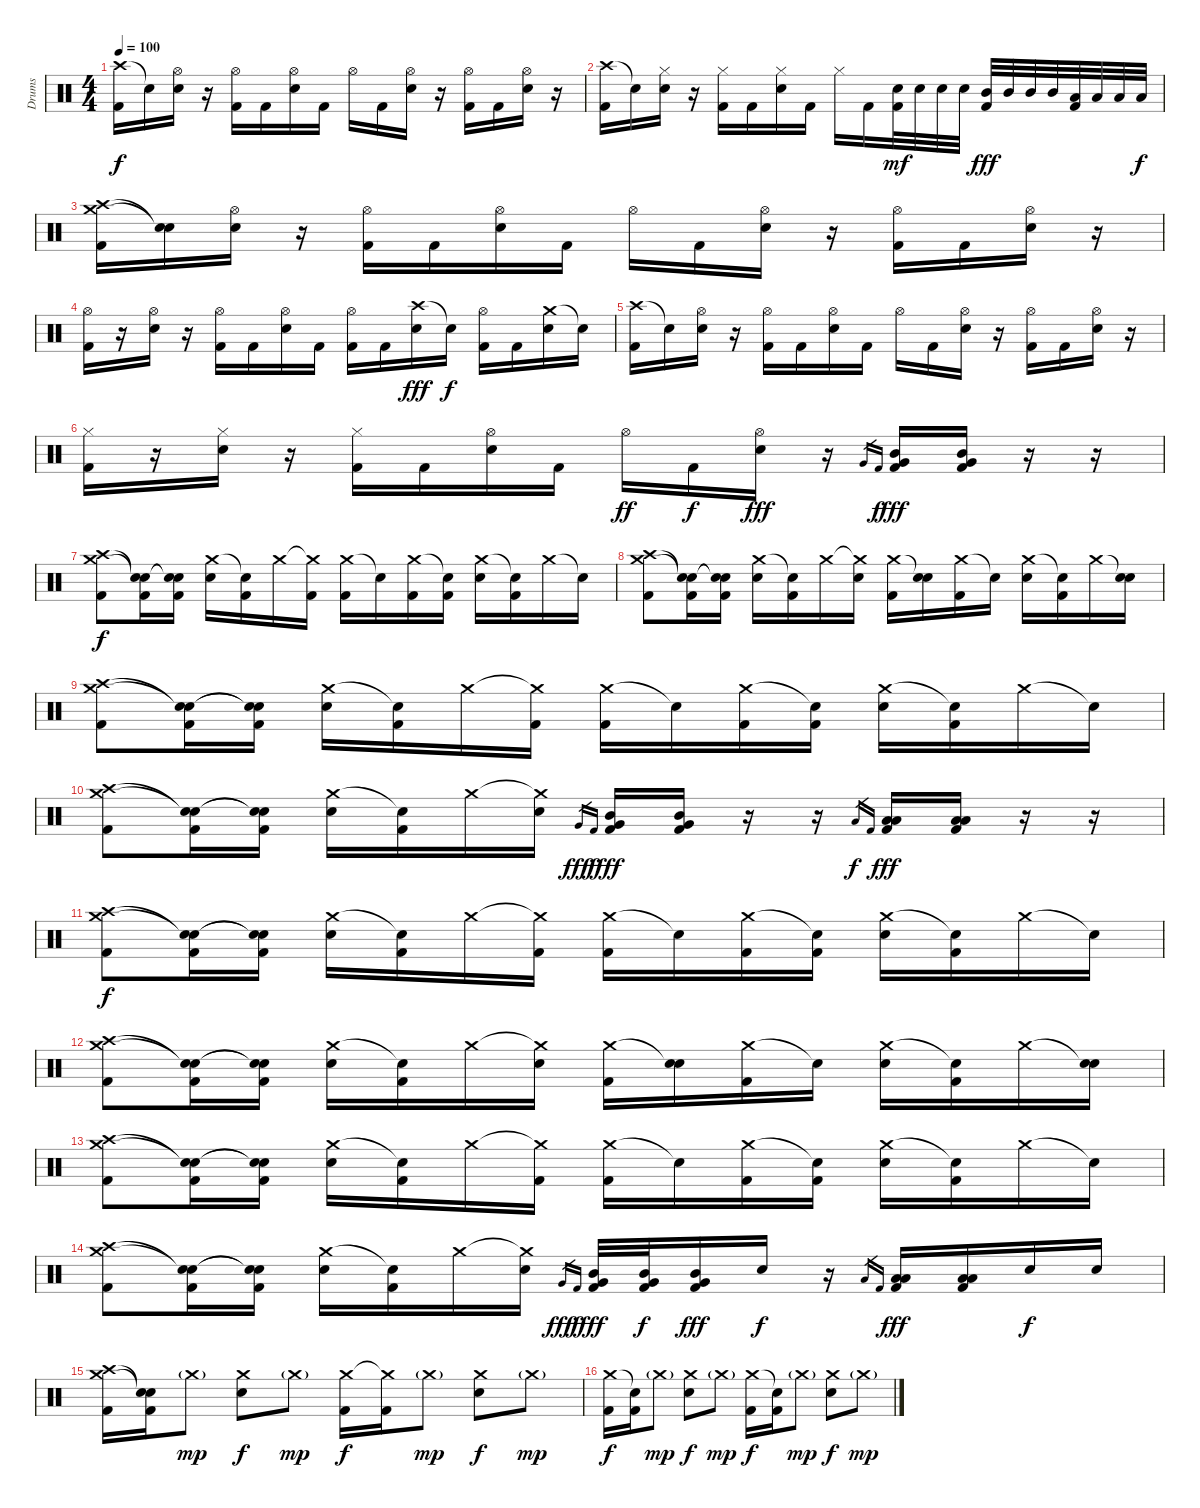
\track ("Drums" "Drums") {instrument percussion}
\staff {score}
\articulation defaults
\ts (4 4)
\tempo 100
\clef neutral
\ks c
("Crash high (hit)" "Kick (hit) 2").16{dy f} "Snare (hit)"{t}.16 ("Hi-Hat (open)" "Electric Snare (hit)").16 r.16 ("Hi-Hat (open)" "Kick (hit) 2").16 "Kick (hit) 2".16 ("Hi-Hat (open)" "Electric Snare (hit)").16 "Kick (hit) 2".16 "Hi-Hat (open)".16 "Kick (hit) 2".16 ("Hi-Hat (open)" "Electric Snare (hit)").16 r.16 ("Hi-Hat (open)" "Kick (hit) 2").16 "Kick (hit) 2".16 ("Hi-Hat (open)" "Electric Snare (hit)").16 r.16 |
("Crash high (hit)" "Kick (hit) 2").16 "Snare (hit)"{t}.16 ("Hi-Hat (closed)" "Electric Snare (hit)").16 r.16 ("Hi-Hat (closed)" "Kick (hit) 2").16 "Kick (hit) 2".16 ("Hi-Hat (closed)" "Electric Snare (hit)").16 "Kick (hit) 2".16 "Hi-Hat (closed)".16 "Kick (hit) 2".16 ("Kick (hit) 2" "Electric Snare (hit)").32{dy mf} "Electric Snare (hit)".32 "Electric Snare (hit)".32 "Electric Snare (hit)".32 ("Mid Tom (hit)" "Kick (hit) 2").32{dy fff} "Mid Tom (hit)".32 "Mid Tom (hit)".32 "Mid Tom (hit)".32 ("Low Tom (hit)" "Kick (hit) 2").32 "Low Tom (hit)".32 "Low Tom (hit)".32 "Low Tom (hit)".32{dy f} |
("Crash high (hit)" "Crash medium (hit)" "Kick (hit) 2").16 ("Snare (hit)"{t} "Snare (hit)"{t}).16 ("Hi-Hat (open)" "Electric Snare (hit)").16 r.16 ("Hi-Hat (open)" "Kick (hit) 2").16 "Kick (hit) 2".16 ("Hi-Hat (open)" "Electric Snare (hit)").16 "Kick (hit) 2".16 "Hi-Hat (open)".16 "Kick (hit) 2".16 ("Hi-Hat (open)" "Electric Snare (hit)").16 r.16 ("Hi-Hat (open)" "Kick (hit) 2").16 "Kick (hit) 2".16 ("Hi-Hat (open)" "Electric Snare (hit)").16 r.16 |
("Hi-Hat (open)" "Kick (hit) 2").16 r.16 ("Hi-Hat (open)" "Electric Snare (hit)").16 r.16 ("Hi-Hat (open)" "Kick (hit) 2").16 "Kick (hit) 2".16 ("Hi-Hat (open)" "Electric Snare (hit)").16 "Kick (hit) 2".16 ("Hi-Hat (open)" "Kick (hit) 2").16 "Kick (hit) 2".16 ("Crash high (hit)" "Electric Snare (hit)").16{dy fff} "Snare (hit)"{t}.16{dy f} ("Hi-Hat (open)" "Kick (hit) 2").16 "Kick (hit) 2".16 ("Crash medium (hit)" "Electric Snare (hit)").16 "Snare (hit)"{t}.16 |
("Crash high (hit)" "Kick (hit) 2").16 "Snare (hit)"{t}.16 ("Hi-Hat (open)" "Electric Snare (hit)").16 r.16 ("Hi-Hat (open)" "Kick (hit) 2").16 "Kick (hit) 2".16 ("Hi-Hat (open)" "Electric Snare (hit)").16 "Kick (hit) 2".16 "Hi-Hat (open)".16 "Kick (hit) 2".16 ("Hi-Hat (open)" "Electric Snare (hit)").16 r.16 ("Hi-Hat (open)" "Kick (hit) 2").16 "Kick (hit) 2".16 ("Hi-Hat (open)" "Electric Snare (hit)").16 r.16 |
("Hi-Hat (closed)" "Kick (hit) 2").16 r.16 ("Hi-Hat (closed)" "Electric Snare (hit)").16 r.16 ("Hi-Hat (closed)" "Kick (hit) 2").16 "Kick (hit) 2".16 ("Hi-Hat (open)" "Electric Snare (hit)").16 "Kick (hit) 2".16 "Hi-Hat (open)".16{dy ff} "Kick (hit) 2".16{dy f} ("Hi-Hat (open)" "Electric Snare (hit)").16{dy fff} r.16 "Very Low Tom (hit)".16{gr} "Kick (hit) 2".16{gr dy f} ("Mid Tom (hit)" "Very Low Tom (hit)" "Kick (hit) 2").16{dy fff} ("Mid Tom (hit)" "Very Low Tom (hit)" "Kick (hit) 2").16 r.16 r.16 |
("Crash high (hit)" "Crash medium (hit)" "Kick (hit) 2").8{dy f} ("Snare (hit)"{t} "Snare (hit)"{t} "Kick (hit) 2").16 ("Snare (hit)"{t} "Snare (hit)"{t} "Kick (hit) 2").16 ("Crash medium (hit)" "Electric Snare (hit)").16 ("Snare (hit)"{t} "Kick (hit) 2").16 "Crash medium (hit)".16 ("Crash medium (hit)"{t} "Kick (hit) 2").16 ("Crash medium (hit)" "Kick (hit) 2").16 "Snare (hit)"{t}.16 ("Crash medium (hit)" "Kick (hit) 2").16 ("Snare (hit)"{t} "Kick (hit) 2").16 ("Crash medium (hit)" "Electric Snare (hit)").16 ("Snare (hit)"{t} "Kick (hit) 2").16 "Crash medium (hit)".16 "Snare (hit)"{t}.16 |
("Crash high (hit)" "Crash medium (hit)" "Kick (hit) 2").8 ("Snare (hit)"{t} "Snare (hit)"{t} "Kick (hit) 2").16 ("Snare (hit)"{t} "Snare (hit)"{t} "Kick (hit) 2").16 ("Crash medium (hit)" "Electric Snare (hit)").16 ("Snare (hit)"{t} "Kick (hit) 2").16 "Crash medium (hit)".16 ("Crash medium (hit)"{t} "Electric Snare (hit)").16 ("Crash medium (hit)" "Kick (hit) 2").16 ("Snare (hit)"{t} "Electric Snare (hit)").16 ("Crash medium (hit)" "Kick (hit) 2").16 "Snare (hit)"{t}.16 ("Crash medium (hit)" "Electric Snare (hit)").16 ("Snare (hit)"{t} "Kick (hit) 2").16 "Crash medium (hit)".16 ("Snare (hit)"{t} "Electric Snare (hit)").16 |
("Crash high (hit)" "Crash medium (hit)" "Kick (hit) 2").8 ("Snare (hit)"{t} "Snare (hit)"{t} "Kick (hit) 2").16 ("Snare (hit)"{t} "Snare (hit)"{t} "Kick (hit) 2").16 ("Crash medium (hit)" "Electric Snare (hit)").16 ("Snare (hit)"{t} "Kick (hit) 2").16 "Crash medium (hit)".16 ("Crash medium (hit)"{t} "Kick (hit) 2").16 ("Crash medium (hit)" "Kick (hit) 2").16 "Snare (hit)"{t}.16 ("Crash medium (hit)" "Kick (hit) 2").16 ("Snare (hit)"{t} "Kick (hit) 2").16 ("Crash medium (hit)" "Electric Snare (hit)").16 ("Snare (hit)"{t} "Kick (hit) 2").16 "Crash medium (hit)".16 "Snare (hit)"{t}.16 |
("Crash high (hit)" "Crash medium (hit)" "Kick (hit) 2").8 ("Snare (hit)"{t} "Snare (hit)"{t} "Kick (hit) 2").16 ("Snare (hit)"{t} "Snare (hit)"{t} "Kick (hit) 2").16 ("Crash medium (hit)" "Electric Snare (hit)").16 ("Snare (hit)"{t} "Kick (hit) 2").16 "Crash medium (hit)".16 ("Crash medium (hit)"{t} "Electric Snare (hit)").16 "Very Low Tom (hit)".16{gr dy fff} "Kick (hit) 2".16{gr dy f} ("Mid Tom (hit)" "Very Low Tom (hit)" "Kick (hit) 2").16{dy fff} ("Mid Tom (hit)" "Very Low Tom (hit)" "Kick (hit) 2").16 r.16 r.16 "Low Floor Tom (hit)".16{gr dy f} "Kick (hit) 2".16{gr} ("Low Tom (hit)" "Low Floor Tom (hit)" "Kick (hit) 2").16{dy fff} ("Low Tom (hit)" "Low Floor Tom (hit)" "Kick (hit) 2").16 r.16 r.16 |
("Crash high (hit)" "Crash medium (hit)" "Kick (hit) 2").8{dy f} ("Snare (hit)"{t} "Snare (hit)"{t} "Kick (hit) 2").16 ("Snare (hit)"{t} "Snare (hit)"{t} "Kick (hit) 2").16 ("Crash medium (hit)" "Electric Snare (hit)").16 ("Snare (hit)"{t} "Kick (hit) 2").16 "Crash medium (hit)".16 ("Crash medium (hit)"{t} "Kick (hit) 2").16 ("Crash medium (hit)" "Kick (hit) 2").16 "Snare (hit)"{t}.16 ("Crash medium (hit)" "Kick (hit) 2").16 ("Snare (hit)"{t} "Kick (hit) 2").16 ("Crash medium (hit)" "Electric Snare (hit)").16 ("Snare (hit)"{t} "Kick (hit) 2").16 "Crash medium (hit)".16 "Snare (hit)"{t}.16 |
("Crash high (hit)" "Crash medium (hit)" "Kick (hit) 2").8 ("Snare (hit)"{t} "Snare (hit)"{t} "Kick (hit) 2").16 ("Snare (hit)"{t} "Snare (hit)"{t} "Kick (hit) 2").16 ("Crash medium (hit)" "Electric Snare (hit)").16 ("Snare (hit)"{t} "Kick (hit) 2").16 "Crash medium (hit)".16 ("Crash medium (hit)"{t} "Electric Snare (hit)").16 ("Crash medium (hit)" "Kick (hit) 2").16 ("Snare (hit)"{t} "Electric Snare (hit)").16 ("Crash medium (hit)" "Kick (hit) 2").16 "Snare (hit)"{t}.16 ("Crash medium (hit)" "Electric Snare (hit)").16 ("Snare (hit)"{t} "Kick (hit) 2").16 "Crash medium (hit)".16 ("Snare (hit)"{t} "Electric Snare (hit)").16 |
("Crash high (hit)" "Crash medium (hit)" "Kick (hit) 2").8 ("Snare (hit)"{t} "Snare (hit)"{t} "Kick (hit) 2").16 ("Snare (hit)"{t} "Snare (hit)"{t} "Kick (hit) 2").16 ("Crash medium (hit)" "Electric Snare (hit)").16 ("Snare (hit)"{t} "Kick (hit) 2").16 "Crash medium (hit)".16 ("Crash medium (hit)"{t} "Kick (hit) 2").16 ("Crash medium (hit)" "Kick (hit) 2").16 "Snare (hit)"{t}.16 ("Crash medium (hit)" "Kick (hit) 2").16 ("Snare (hit)"{t} "Kick (hit) 2").16 ("Crash medium (hit)" "Electric Snare (hit)").16 ("Snare (hit)"{t} "Kick (hit) 2").16 "Crash medium (hit)".16 "Snare (hit)"{t}.16 |
("Crash high (hit)" "Crash medium (hit)" "Kick (hit) 2").8 ("Snare (hit)"{t} "Snare (hit)"{t} "Kick (hit) 2").16 ("Snare (hit)"{t} "Snare (hit)"{t} "Kick (hit) 2").16 ("Crash medium (hit)" "Electric Snare (hit)").16 ("Snare (hit)"{t} "Kick (hit) 2").16 "Crash medium (hit)".16 ("Crash medium (hit)"{t} "Electric Snare (hit)").16 "Very Low Tom (hit)".16{gr dy fff} "Kick (hit) 2".16{gr dy f} ("Mid Tom (hit)" "Very Low Tom (hit)" "Kick (hit) 2").32{dy fff} ("Mid Tom (hit)" "Very Low Tom (hit)" "Kick (hit) 2").32{dy f} ("Mid Tom (hit)" "Very Low Tom (hit)" "Kick (hit) 2").16{dy fff} "Electric Snare (hit)".16{dy f} r.16 "Low Floor Tom (hit)".16{gr} "Kick (hit) 2".16{gr} ("Low Tom (hit)" "Low Floor Tom (hit)" "Kick (hit) 2").16{dy fff} ("Low Tom (hit)" "Low Floor Tom (hit)" "Kick (hit) 2").16 "Electric Snare (hit)".16{dy f} "Electric Snare (hit)".16 |
("Crash medium (hit)" "Crash high (hit)" "Kick (hit) 2").16 ("Snare (hit)"{t} "Snare (hit)"{t} "Kick (hit) 2").16 "Crash medium (hit)"{g}.8{dy mp} ("Crash medium (hit)" "Electric Snare (hit)").8{dy f} "Crash medium (hit)"{g}.8{dy mp} ("Crash medium (hit)" "Kick (hit) 2").16{dy f} ("Crash medium (hit)"{t} "Kick (hit) 2").16 "Crash medium (hit)"{g}.8{dy mp} ("Crash medium (hit)" "Electric Snare (hit)").8{dy f} "Crash medium (hit)"{g}.8{dy mp} |
("Crash medium (hit)" "Kick (hit) 2").16{dy f} ("Snare (hit)"{t} "Kick (hit) 2").16 "Crash medium (hit)"{g}.8{dy mp} ("Crash medium (hit)" "Electric Snare (hit)").8{dy f} "Crash medium (hit)"{g}.8{dy mp} ("Crash medium (hit)" "Kick (hit) 2").16{dy f} ("Snare (hit)"{t} "Kick (hit) 2").16 "Crash medium (hit)"{g}.8{dy mp} ("Crash medium (hit)" "Electric Snare (hit)").8{dy f} "Crash medium (hit)"{g}.8{dy mp}
